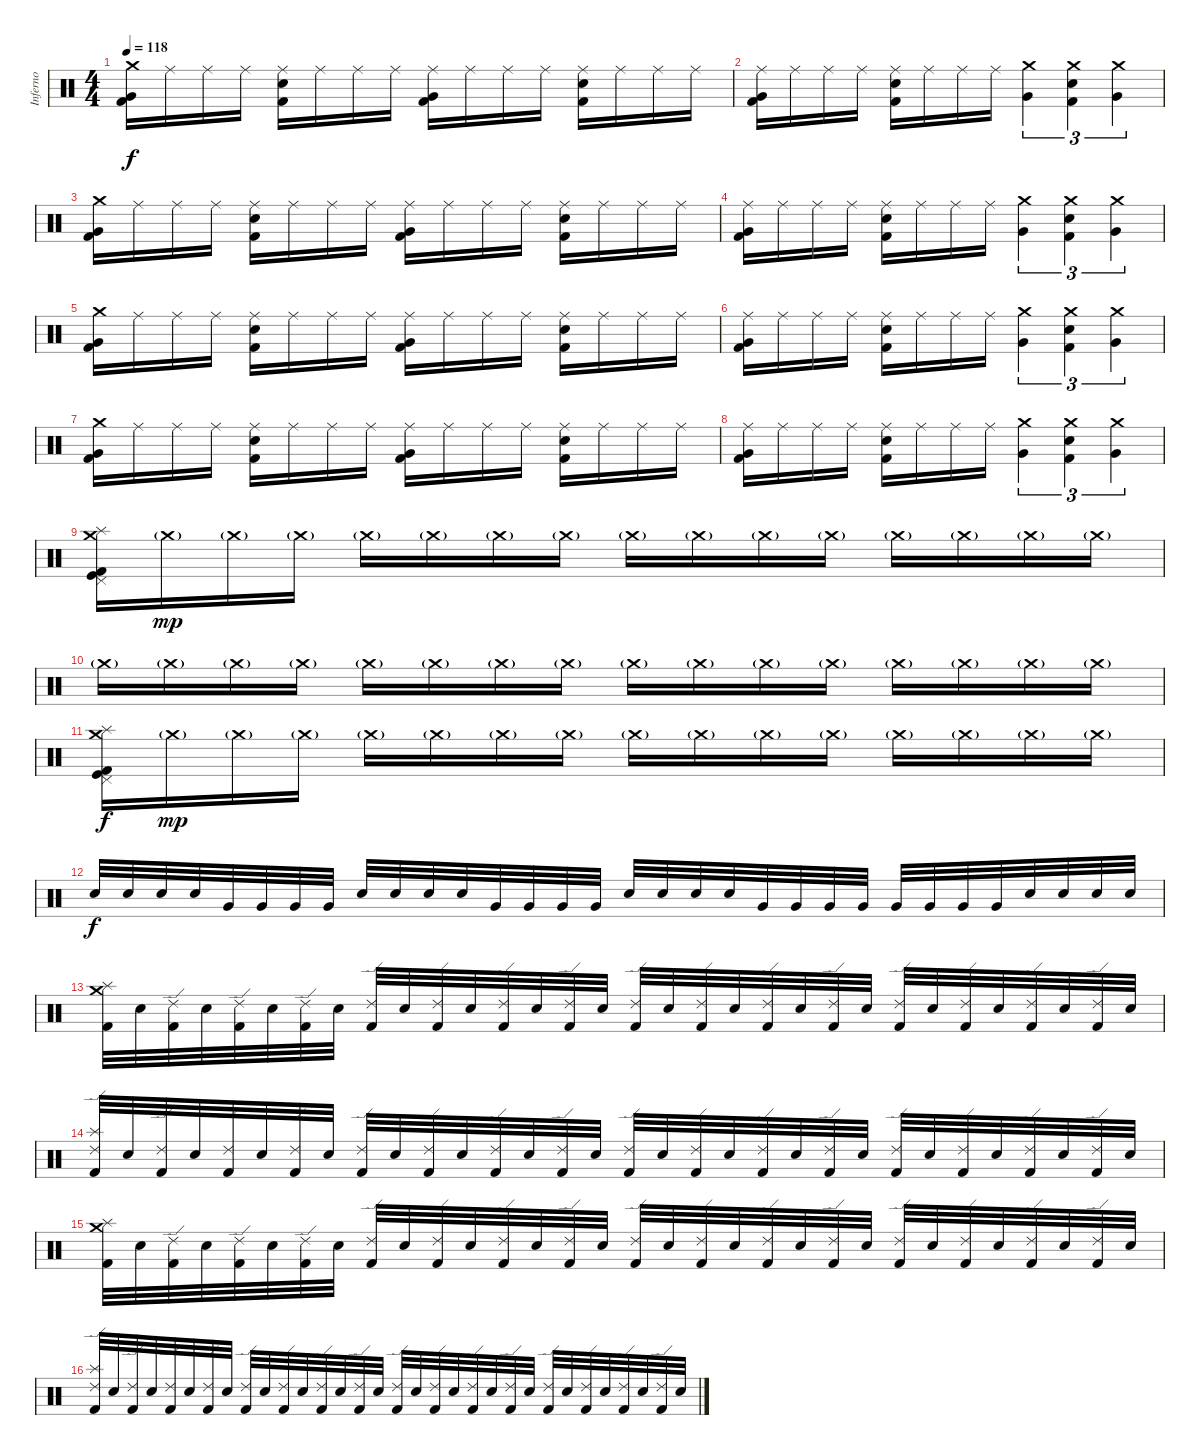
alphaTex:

\track ("Inferno" "Inferno") {instrument percussion}
\staff {score}
\articulation defaults
\ts (4 4)
\tempo 118
\clef neutral
\ks c
("Crash medium (hit)" "Very Low Tom (hit)" "Kick (hit) 2").16{dy f} "Ride (middle)".16 "Ride (middle)".16 "Ride (middle)".16 ("Ride (middle)" "Electric Snare (hit)" "Kick (hit) 2").16 "Ride (middle)".16 "Ride (middle)".16 "Ride (middle)".16 ("Ride (middle)" "Very Low Tom (hit)" "Kick (hit) 2").16 "Ride (middle)".16 "Ride (middle)".16 "Ride (middle)".16 ("Ride (middle)" "Electric Snare (hit)" "Kick (hit) 2").16 "Ride (middle)".16 "Ride (middle)".16 "Ride (middle)".16 |
("Ride (middle)" "Very Low Tom (hit)" "Kick (hit) 2").16 "Ride (middle)".16 "Ride (middle)".16 "Ride (middle)".16 ("Ride (middle)" "Electric Snare (hit)" "Kick (hit) 2").16 "Ride (middle)".16 "Ride (middle)".16 "Ride (middle)".16 ("Crash medium (hit)" "Very Low Tom (hit)").4{tu (3 2)} ("Crash medium (hit)" "Electric Snare (hit)" "Kick (hit) 2").4{tu (3 2)} ("Crash medium (hit)" "Very Low Tom (hit)").4{tu (3 2)} |
("Crash medium (hit)" "Very Low Tom (hit)" "Kick (hit) 2").16 "Ride (middle)".16 "Ride (middle)".16 "Ride (middle)".16 ("Ride (middle)" "Electric Snare (hit)" "Kick (hit) 2").16 "Ride (middle)".16 "Ride (middle)".16 "Ride (middle)".16 ("Ride (middle)" "Very Low Tom (hit)" "Kick (hit) 2").16 "Ride (middle)".16 "Ride (middle)".16 "Ride (middle)".16 ("Ride (middle)" "Electric Snare (hit)" "Kick (hit) 2").16 "Ride (middle)".16 "Ride (middle)".16 "Ride (middle)".16 |
("Ride (middle)" "Very Low Tom (hit)" "Kick (hit) 2").16 "Ride (middle)".16 "Ride (middle)".16 "Ride (middle)".16 ("Ride (middle)" "Electric Snare (hit)" "Kick (hit) 2").16 "Ride (middle)".16 "Ride (middle)".16 "Ride (middle)".16 ("Crash medium (hit)" "Very Low Tom (hit)").4{tu (3 2)} ("Crash medium (hit)" "Electric Snare (hit)" "Kick (hit) 2").4{tu (3 2)} ("Crash medium (hit)" "Very Low Tom (hit)").4{tu (3 2)} |
("Crash medium (hit)" "Very Low Tom (hit)" "Kick (hit) 2").16 "Ride (middle)".16 "Ride (middle)".16 "Ride (middle)".16 ("Ride (middle)" "Electric Snare (hit)" "Kick (hit) 2").16 "Ride (middle)".16 "Ride (middle)".16 "Ride (middle)".16 ("Ride (middle)" "Very Low Tom (hit)" "Kick (hit) 2").16 "Ride (middle)".16 "Ride (middle)".16 "Ride (middle)".16 ("Ride (middle)" "Electric Snare (hit)" "Kick (hit) 2").16 "Ride (middle)".16 "Ride (middle)".16 "Ride (middle)".16 |
("Ride (middle)" "Very Low Tom (hit)" "Kick (hit) 2").16 "Ride (middle)".16 "Ride (middle)".16 "Ride (middle)".16 ("Ride (middle)" "Electric Snare (hit)" "Kick (hit) 2").16 "Ride (middle)".16 "Ride (middle)".16 "Ride (middle)".16 ("Crash medium (hit)" "Very Low Tom (hit)").4{tu (3 2)} ("Crash medium (hit)" "Electric Snare (hit)" "Kick (hit) 2").4{tu (3 2)} ("Crash medium (hit)" "Very Low Tom (hit)").4{tu (3 2)} |
("Crash medium (hit)" "Very Low Tom (hit)" "Kick (hit) 2").16 "Ride (middle)".16 "Ride (middle)".16 "Ride (middle)".16 ("Ride (middle)" "Electric Snare (hit)" "Kick (hit) 2").16 "Ride (middle)".16 "Ride (middle)".16 "Ride (middle)".16 ("Ride (middle)" "Very Low Tom (hit)" "Kick (hit) 2").16 "Ride (middle)".16 "Ride (middle)".16 "Ride (middle)".16 ("Ride (middle)" "Electric Snare (hit)" "Kick (hit) 2").16 "Ride (middle)".16 "Ride (middle)".16 "Ride (middle)".16 |
("Ride (middle)" "Very Low Tom (hit)" "Kick (hit) 2").16 "Ride (middle)".16 "Ride (middle)".16 "Ride (middle)".16 ("Ride (middle)" "Electric Snare (hit)" "Kick (hit) 2").16 "Ride (middle)".16 "Ride (middle)".16 "Ride (middle)".16 ("Crash medium (hit)" "Very Low Tom (hit)").4{tu (3 2)} ("Crash medium (hit)" "Electric Snare (hit)" "Kick (hit) 2").4{tu (3 2)} ("Crash medium (hit)" "Very Low Tom (hit)").4{tu (3 2)} |
("Crash medium (hit)" "Splash (hit)" "Pedal Hi-Hat (hit)" "Kick (hit)" "Kick (hit) 2").16 "Crash medium (hit)"{g}.16{dy mp} "Crash medium (hit)"{g}.16 "Crash medium (hit)"{g}.16 "Crash medium (hit)"{g}.16 "Crash medium (hit)"{g}.16 "Crash medium (hit)"{g}.16 "Crash medium (hit)"{g}.16 "Crash medium (hit)"{g}.16 "Crash medium (hit)"{g}.16 "Crash medium (hit)"{g}.16 "Crash medium (hit)"{g}.16 "Crash medium (hit)"{g}.16 "Crash medium (hit)"{g}.16 "Crash medium (hit)"{g}.16 "Crash medium (hit)"{g}.16 |
"Crash medium (hit)"{g}.16 "Crash medium (hit)"{g}.16 "Crash medium (hit)"{g}.16 "Crash medium (hit)"{g}.16 "Crash medium (hit)"{g}.16 "Crash medium (hit)"{g}.16 "Crash medium (hit)"{g}.16 "Crash medium (hit)"{g}.16 "Crash medium (hit)"{g}.16 "Crash medium (hit)"{g}.16 "Crash medium (hit)"{g}.16 "Crash medium (hit)"{g}.16 "Crash medium (hit)"{g}.16 "Crash medium (hit)"{g}.16 "Crash medium (hit)"{g}.16 "Crash medium (hit)"{g}.16 |
("Crash medium (hit)" "Splash (hit)" "Pedal Hi-Hat (hit)" "Kick (hit)" "Kick (hit) 2").16{dy f} "Crash medium (hit)"{g}.16{dy mp} "Crash medium (hit)"{g}.16 "Crash medium (hit)"{g}.16 "Crash medium (hit)"{g}.16 "Crash medium (hit)"{g}.16 "Crash medium (hit)"{g}.16 "Crash medium (hit)"{g}.16 "Crash medium (hit)"{g}.16 "Crash medium (hit)"{g}.16 "Crash medium (hit)"{g}.16 "Crash medium (hit)"{g}.16 "Crash medium (hit)"{g}.16 "Crash medium (hit)"{g}.16 "Crash medium (hit)"{g}.16 "Crash medium (hit)"{g}.16 |
"Electric Snare (hit)".32{dy f} "Electric Snare (hit)".32 "Electric Snare (hit)".32 "Electric Snare (hit)".32 "Very Low Tom (hit)".32 "Very Low Tom (hit)".32 "Very Low Tom (hit)".32 "Very Low Tom (hit)".32 "Electric Snare (hit)".32 "Electric Snare (hit)".32 "Electric Snare (hit)".32 "Electric Snare (hit)".32 "Very Low Tom (hit)".32 "Very Low Tom (hit)".32 "Very Low Tom (hit)".32 "Very Low Tom (hit)".32 "Electric Snare (hit)".32 "Electric Snare (hit)".32 "Electric Snare (hit)".32 "Electric Snare (hit)".32 "Very Low Tom (hit)".32 "Very Low Tom (hit)".32 "Very Low Tom (hit)".32 "Very Low Tom (hit)".32 "Very Low Tom (hit)".32 "Very Low Tom (hit)".32 "Very Low Tom (hit)".32 "Very Low Tom (hit)".32 "Electric Snare (hit)".32 "Electric Snare (hit)".32 "Electric Snare (hit)".32 "Electric Snare (hit)".32 |
("Crash medium (hit)" "Splash (hit)" "Kick (hit) 2").32 "Electric Snare (hit)".32 ("Ride (edge) 2" "Kick (hit) 2").32 "Electric Snare (hit)".32 ("Ride (edge) 2" "Kick (hit) 2").32 "Electric Snare (hit)".32 ("Ride (edge) 2" "Kick (hit) 2").32 "Electric Snare (hit)".32 ("Ride (edge) 2" "Kick (hit) 2").32 "Electric Snare (hit)".32 ("Ride (edge) 2" "Kick (hit) 2").32 "Electric Snare (hit)".32 ("Ride (edge) 2" "Kick (hit) 2").32 "Electric Snare (hit)".32 ("Ride (edge) 2" "Kick (hit) 2").32 "Electric Snare (hit)".32 ("Ride (edge) 2" "Kick (hit) 2").32 "Electric Snare (hit)".32 ("Ride (edge) 2" "Kick (hit) 2").32 "Electric Snare (hit)".32 ("Ride (edge) 2" "Kick (hit) 2").32 "Electric Snare (hit)".32 ("Ride (edge) 2" "Kick (hit) 2").32 "Electric Snare (hit)".32 ("Ride (edge) 2" "Kick (hit) 2").32 "Electric Snare (hit)".32 ("Ride (edge) 2" "Kick (hit) 2").32 "Electric Snare (hit)".32 ("Ride (edge) 2" "Kick (hit) 2").32 "Electric Snare (hit)".32 ("Ride (edge) 2" "Kick (hit) 2").32 "Electric Snare (hit)".32 |
("Ride (edge) 2" "Splash (hit)" "Kick (hit) 2").32 "Electric Snare (hit)".32 ("Ride (edge) 2" "Kick (hit) 2").32 "Electric Snare (hit)".32 ("Ride (edge) 2" "Kick (hit) 2").32 "Electric Snare (hit)".32 ("Ride (edge) 2" "Kick (hit) 2").32 "Electric Snare (hit)".32 ("Ride (edge) 2" "Kick (hit) 2").32 "Electric Snare (hit)".32 ("Ride (edge) 2" "Kick (hit) 2").32 "Electric Snare (hit)".32 ("Ride (edge) 2" "Kick (hit) 2").32 "Electric Snare (hit)".32 ("Ride (edge) 2" "Kick (hit) 2").32 "Electric Snare (hit)".32 ("Ride (edge) 2" "Kick (hit) 2").32 "Electric Snare (hit)".32 ("Ride (edge) 2" "Kick (hit) 2").32 "Electric Snare (hit)".32 ("Ride (edge) 2" "Kick (hit) 2").32 "Electric Snare (hit)".32 ("Ride (edge) 2" "Kick (hit) 2").32 "Electric Snare (hit)".32 ("Ride (edge) 2" "Kick (hit) 2").32 "Electric Snare (hit)".32 ("Ride (edge) 2" "Kick (hit) 2").32 "Electric Snare (hit)".32 ("Ride (edge) 2" "Kick (hit) 2").32 "Electric Snare (hit)".32 ("Ride (edge) 2" "Kick (hit) 2").32 "Electric Snare (hit)".32 |
("Crash medium (hit)" "Splash (hit)" "Kick (hit) 2").32 "Electric Snare (hit)".32 ("Ride (edge) 2" "Kick (hit) 2").32 "Electric Snare (hit)".32 ("Ride (edge) 2" "Kick (hit) 2").32 "Electric Snare (hit)".32 ("Ride (edge) 2" "Kick (hit) 2").32 "Electric Snare (hit)".32 ("Ride (edge) 2" "Kick (hit) 2").32 "Electric Snare (hit)".32 ("Ride (edge) 2" "Kick (hit) 2").32 "Electric Snare (hit)".32 ("Ride (edge) 2" "Kick (hit) 2").32 "Electric Snare (hit)".32 ("Ride (edge) 2" "Kick (hit) 2").32 "Electric Snare (hit)".32 ("Ride (edge) 2" "Kick (hit) 2").32 "Electric Snare (hit)".32 ("Ride (edge) 2" "Kick (hit) 2").32 "Electric Snare (hit)".32 ("Ride (edge) 2" "Kick (hit) 2").32 "Electric Snare (hit)".32 ("Ride (edge) 2" "Kick (hit) 2").32 "Electric Snare (hit)".32 ("Ride (edge) 2" "Kick (hit) 2").32 "Electric Snare (hit)".32 ("Ride (edge) 2" "Kick (hit) 2").32 "Electric Snare (hit)".32 ("Ride (edge) 2" "Kick (hit) 2").32 "Electric Snare (hit)".32 ("Ride (edge) 2" "Kick (hit) 2").32 "Electric Snare (hit)".32 |
("Ride (edge) 2" "Splash (hit)" "Kick (hit) 2").32 "Electric Snare (hit)".32 ("Ride (edge) 2" "Kick (hit) 2").32 "Electric Snare (hit)".32 ("Ride (edge) 2" "Kick (hit) 2").32 "Electric Snare (hit)".32 ("Ride (edge) 2" "Kick (hit) 2").32 "Electric Snare (hit)".32 ("Ride (edge) 2" "Kick (hit) 2").32 "Electric Snare (hit)".32 ("Ride (edge) 2" "Kick (hit) 2").32 "Electric Snare (hit)".32 ("Ride (edge) 2" "Kick (hit) 2").32 "Electric Snare (hit)".32 ("Ride (edge) 2" "Kick (hit) 2").32 "Electric Snare (hit)".32 ("Ride (edge) 2" "Kick (hit) 2").32 "Electric Snare (hit)".32 ("Ride (edge) 2" "Kick (hit) 2").32 "Electric Snare (hit)".32 ("Ride (edge) 2" "Kick (hit) 2").32 "Electric Snare (hit)".32 ("Ride (edge) 2" "Kick (hit) 2").32 "Electric Snare (hit)".32 ("Ride (edge) 2" "Kick (hit) 2").32 "Electric Snare (hit)".32 ("Ride (edge) 2" "Kick (hit) 2").32 "Electric Snare (hit)".32 ("Ride (edge) 2" "Kick (hit) 2").32 "Electric Snare (hit)".32 ("Ride (edge) 2" "Kick (hit) 2").32 "Electric Snare (hit)".32
